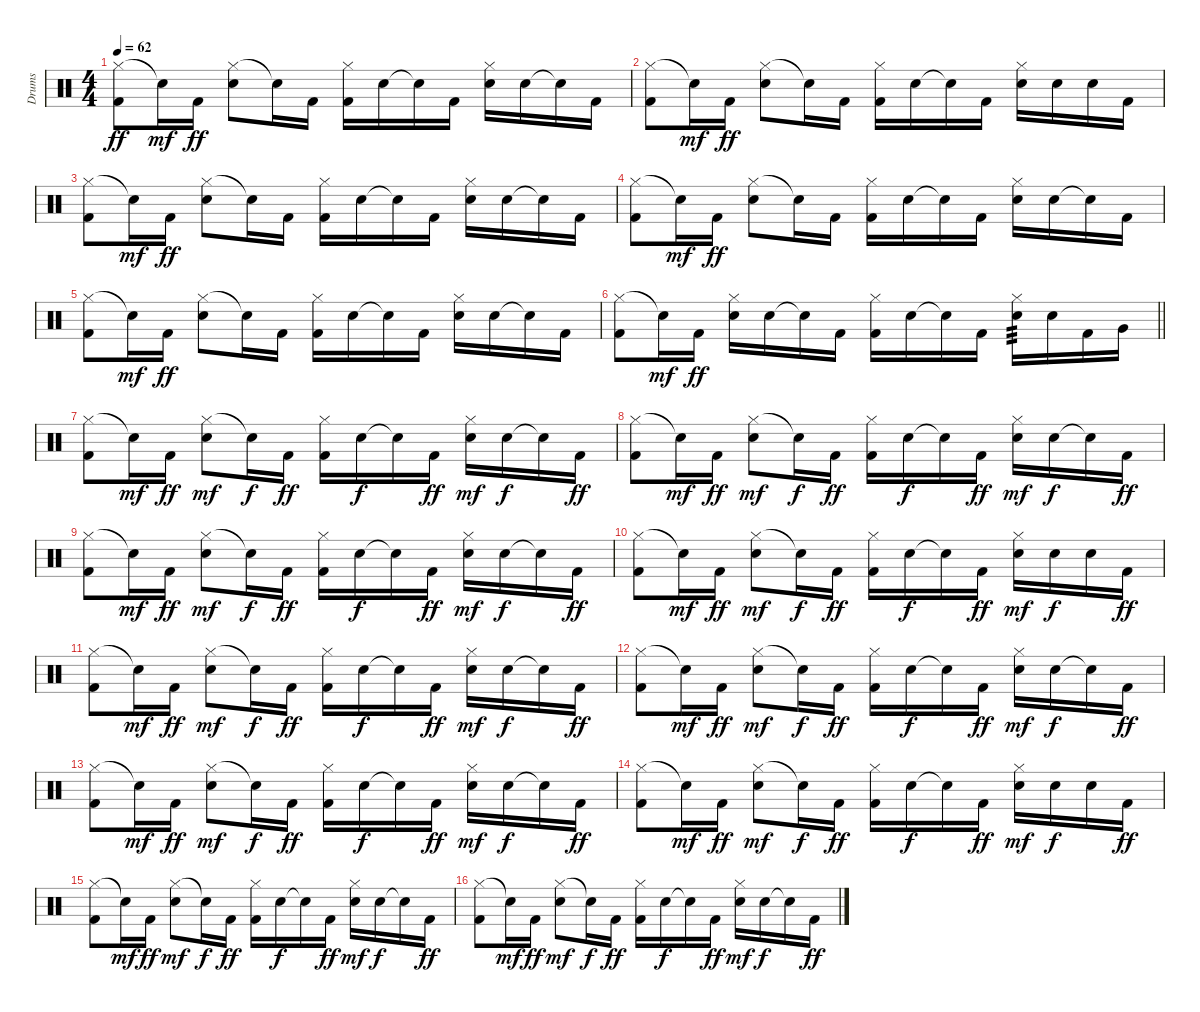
\track ("Drums" "Drums") {instrument percussion}
\staff {score}
\articulation defaults
\ts (4 4)
\tempo 62
\clef neutral
\ks c
("Hi-Hat (closed)" "Kick (hit) 2").8{dy ff} "Snare (hit)"{t}.16{dy mf} "Kick (hit) 2".16{dy ff} ("Hi-Hat (closed)" "Snare (hit) 2").8 "Snare (hit)"{t}.16 "Kick (hit) 2".16 ("Hi-Hat (closed)" "Kick (hit) 2").16 "Snare (hit) 2".16 "Snare (hit)"{t}.16 "Kick (hit) 2".16 ("Hi-Hat (closed)" "Snare (hit) 2").16 "Snare (hit) 2".16 "Snare (hit) 2"{t}.16 "Kick (hit) 2".16 |
("Hi-Hat (closed)" "Kick (hit) 2").8 "Snare (hit)"{t}.16{dy mf} "Kick (hit) 2".16{dy ff} ("Hi-Hat (closed)" "Snare (hit) 2").8 "Snare (hit)"{t}.16 "Kick (hit) 2".16 ("Hi-Hat (closed)" "Kick (hit) 2").16 "Snare (hit) 2".16 "Snare (hit)"{t}.16 "Kick (hit) 2".16 ("Hi-Hat (closed)" "Snare (hit) 2").16 "Snare (hit) 2".16 "Snare (hit) 2".16 "Kick (hit) 2".16 |
("Hi-Hat (closed)" "Kick (hit) 2").8 "Snare (hit)"{t}.16{dy mf} "Kick (hit) 2".16{dy ff} ("Hi-Hat (closed)" "Snare (hit) 2").8 "Snare (hit)"{t}.16 "Kick (hit) 2".16 ("Hi-Hat (closed)" "Kick (hit) 2").16 "Snare (hit) 2".16 "Snare (hit)"{t}.16 "Kick (hit) 2".16 ("Hi-Hat (closed)" "Snare (hit) 2").16 "Snare (hit) 2".16 "Snare (hit) 2"{t}.16 "Kick (hit) 2".16 |
("Hi-Hat (closed)" "Kick (hit) 2").8 "Snare (hit)"{t}.16{dy mf} "Kick (hit) 2".16{dy ff} ("Hi-Hat (closed)" "Snare (hit) 2").8 "Snare (hit)"{t}.16 "Kick (hit) 2".16 ("Hi-Hat (closed)" "Kick (hit) 2").16 "Snare (hit) 2".16 "Snare (hit)"{t}.16 "Kick (hit) 2".16 ("Hi-Hat (closed)" "Snare (hit) 2").16 "Snare (hit) 2".16 "Snare (hit) 2"{t}.16 "Kick (hit) 2".16 |
("Hi-Hat (closed)" "Kick (hit) 2").8 "Snare (hit)"{t}.16{dy mf} "Kick (hit) 2".16{dy ff} ("Hi-Hat (closed)" "Snare (hit) 2").8 "Snare (hit)"{t}.16 "Kick (hit) 2".16 ("Hi-Hat (closed)" "Kick (hit) 2").16 "Snare (hit) 2".16 "Snare (hit)"{t}.16 "Kick (hit) 2".16 ("Hi-Hat (closed)" "Snare (hit) 2").16 "Snare (hit) 2".16 "Snare (hit) 2"{t}.16 "Kick (hit) 2".16 |
\barLineRight lightlight
("Hi-Hat (closed)" "Kick (hit) 2").8 "Snare (hit)"{t}.16{dy mf} "Kick (hit) 2".16{dy ff} ("Hi-Hat (closed)" "Snare (hit) 2").16 "Snare (hit) 2".16 "Snare (hit)"{t}.16 "Kick (hit) 2".16 ("Hi-Hat (closed)" "Kick (hit) 2").16 "Snare (hit) 2".16 "Snare (hit)"{t}.16 "Kick (hit) 2".16 ("Hi-Hat (closed)" "Snare (hit) 2").16{tp 3} "Snare (hit) 2".16 "Kick (hit) 2".16 "Very Low Tom (hit)".16 |
\section ("" "")
("Hi-Hat (closed)" "Kick (hit) 2").8 "Snare (hit)"{t}.16{dy mf} "Kick (hit) 2".16{dy ff} ("Hi-Hat (closed)" "Snare (hit) 2").8{dy mf} "Snare (hit)"{t}.16{dy f} "Kick (hit) 2".16{dy ff} ("Hi-Hat (closed)" "Kick (hit) 2").16 "Snare (hit) 2".16{dy f} "Snare (hit)"{t}.16 "Kick (hit) 2".16{dy ff} ("Hi-Hat (closed)" "Snare (hit) 2").16{dy mf} "Snare (hit) 2".16{dy f} "Snare (hit) 2"{t}.16 "Kick (hit) 2".16{dy ff} |
("Hi-Hat (closed)" "Kick (hit) 2").8 "Snare (hit)"{t}.16{dy mf} "Kick (hit) 2".16{dy ff} ("Hi-Hat (closed)" "Snare (hit) 2").8{dy mf} "Snare (hit)"{t}.16{dy f} "Kick (hit) 2".16{dy ff} ("Hi-Hat (closed)" "Kick (hit) 2").16 "Snare (hit) 2".16{dy f} "Snare (hit)"{t}.16 "Kick (hit) 2".16{dy ff} ("Hi-Hat (closed)" "Snare (hit) 2").16{dy mf} "Snare (hit) 2".16{dy f} "Snare (hit) 2"{t}.16 "Kick (hit) 2".16{dy ff} |
("Hi-Hat (closed)" "Kick (hit) 2").8 "Snare (hit)"{t}.16{dy mf} "Kick (hit) 2".16{dy ff} ("Hi-Hat (closed)" "Snare (hit) 2").8{dy mf} "Snare (hit)"{t}.16{dy f} "Kick (hit) 2".16{dy ff} ("Hi-Hat (closed)" "Kick (hit) 2").16 "Snare (hit) 2".16{dy f} "Snare (hit)"{t}.16 "Kick (hit) 2".16{dy ff} ("Hi-Hat (closed)" "Snare (hit) 2").16{dy mf} "Snare (hit) 2".16{dy f} "Snare (hit) 2"{t}.16 "Kick (hit) 2".16{dy ff} |
("Hi-Hat (closed)" "Kick (hit) 2").8 "Snare (hit)"{t}.16{dy mf} "Kick (hit) 2".16{dy ff} ("Hi-Hat (closed)" "Snare (hit) 2").8{dy mf} "Snare (hit)"{t}.16{dy f} "Kick (hit) 2".16{dy ff} ("Hi-Hat (closed)" "Kick (hit) 2").16 "Snare (hit) 2".16{dy f} "Snare (hit)"{t}.16 "Kick (hit) 2".16{dy ff} ("Hi-Hat (closed)" "Snare (hit) 2").16{dy mf} "Snare (hit) 2".16{dy f} "Snare (hit) 2".16 "Kick (hit) 2".16{dy ff} |
("Hi-Hat (closed)" "Kick (hit) 2").8 "Snare (hit)"{t}.16{dy mf} "Kick (hit) 2".16{dy ff} ("Hi-Hat (closed)" "Snare (hit) 2").8{dy mf} "Snare (hit)"{t}.16{dy f} "Kick (hit) 2".16{dy ff} ("Hi-Hat (closed)" "Kick (hit) 2").16 "Snare (hit) 2".16{dy f} "Snare (hit)"{t}.16 "Kick (hit) 2".16{dy ff} ("Hi-Hat (closed)" "Snare (hit) 2").16{dy mf} "Snare (hit) 2".16{dy f} "Snare (hit) 2"{t}.16 "Kick (hit) 2".16{dy ff} |
("Hi-Hat (closed)" "Kick (hit) 2").8 "Snare (hit)"{t}.16{dy mf} "Kick (hit) 2".16{dy ff} ("Hi-Hat (closed)" "Snare (hit) 2").8{dy mf} "Snare (hit)"{t}.16{dy f} "Kick (hit) 2".16{dy ff} ("Hi-Hat (closed)" "Kick (hit) 2").16 "Snare (hit) 2".16{dy f} "Snare (hit)"{t}.16 "Kick (hit) 2".16{dy ff} ("Hi-Hat (closed)" "Snare (hit) 2").16{dy mf} "Snare (hit) 2".16{dy f} "Snare (hit) 2"{t}.16 "Kick (hit) 2".16{dy ff} |
("Hi-Hat (closed)" "Kick (hit) 2").8 "Snare (hit)"{t}.16{dy mf} "Kick (hit) 2".16{dy ff} ("Hi-Hat (closed)" "Snare (hit) 2").8{dy mf} "Snare (hit)"{t}.16{dy f} "Kick (hit) 2".16{dy ff} ("Hi-Hat (closed)" "Kick (hit) 2").16 "Snare (hit) 2".16{dy f} "Snare (hit)"{t}.16 "Kick (hit) 2".16{dy ff} ("Hi-Hat (closed)" "Snare (hit) 2").16{dy mf} "Snare (hit) 2".16{dy f} "Snare (hit) 2"{t}.16 "Kick (hit) 2".16{dy ff} |
("Hi-Hat (closed)" "Kick (hit) 2").8 "Snare (hit)"{t}.16{dy mf} "Kick (hit) 2".16{dy ff} ("Hi-Hat (closed)" "Snare (hit) 2").8{dy mf} "Snare (hit)"{t}.16{dy f} "Kick (hit) 2".16{dy ff} ("Hi-Hat (closed)" "Kick (hit) 2").16 "Snare (hit) 2".16{dy f} "Snare (hit)"{t}.16 "Kick (hit) 2".16{dy ff} ("Hi-Hat (closed)" "Snare (hit) 2").16{dy mf} "Snare (hit) 2".16{dy f} "Snare (hit) 2".16 "Kick (hit) 2".16{dy ff} |
("Hi-Hat (closed)" "Kick (hit) 2").8 "Snare (hit)"{t}.16{dy mf} "Kick (hit) 2".16{dy ff} ("Hi-Hat (closed)" "Snare (hit) 2").8{dy mf} "Snare (hit)"{t}.16{dy f} "Kick (hit) 2".16{dy ff} ("Hi-Hat (closed)" "Kick (hit) 2").16 "Snare (hit) 2".16{dy f} "Snare (hit)"{t}.16 "Kick (hit) 2".16{dy ff} ("Hi-Hat (closed)" "Snare (hit) 2").16{dy mf} "Snare (hit) 2".16{dy f} "Snare (hit) 2"{t}.16 "Kick (hit) 2".16{dy ff} |
("Hi-Hat (closed)" "Kick (hit) 2").8 "Snare (hit)"{t}.16{dy mf} "Kick (hit) 2".16{dy ff} ("Hi-Hat (closed)" "Snare (hit) 2").8{dy mf} "Snare (hit)"{t}.16{dy f} "Kick (hit) 2".16{dy ff} ("Hi-Hat (closed)" "Kick (hit) 2").16 "Snare (hit) 2".16{dy f} "Snare (hit)"{t}.16 "Kick (hit) 2".16{dy ff} ("Hi-Hat (closed)" "Snare (hit) 2").16{dy mf} "Snare (hit) 2".16{dy f} "Snare (hit) 2"{t}.16 "Kick (hit) 2".16{dy ff}
